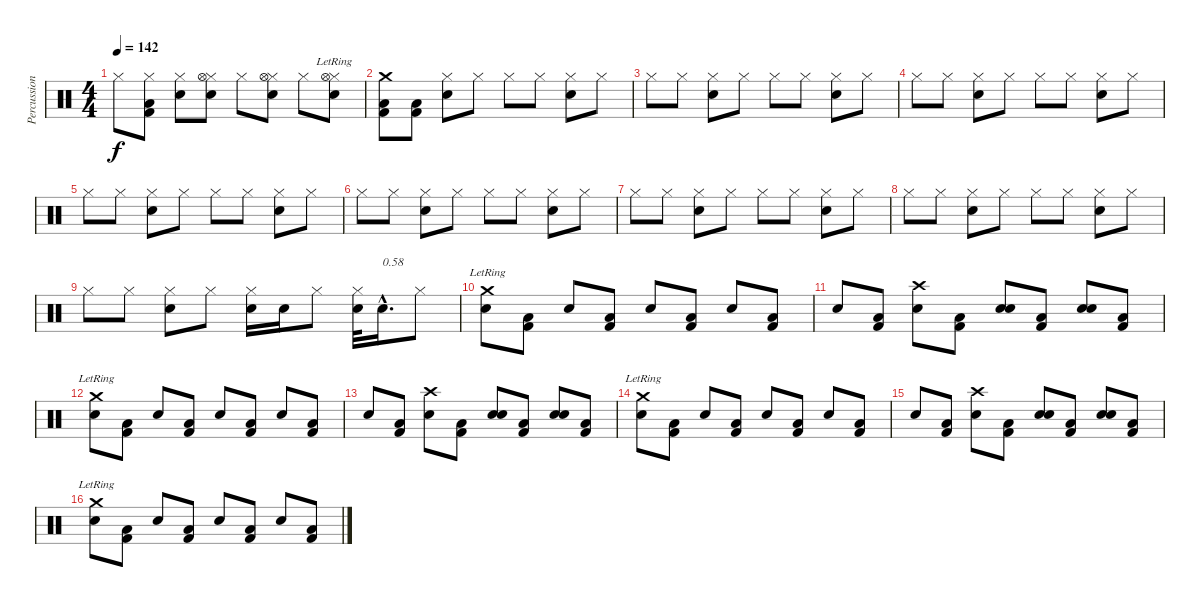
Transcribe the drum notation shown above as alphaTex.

\track ("Percussions" "Percussion") {instrument percussion}
\staff {score}
\articulation defaults
\ts (4 4)
\tempo 142
\clef neutral
\ks c "Hi-Hat (closed)".8{dy f}
("Kick (hit) 2" "Low Floor Tom (hit)" "Hi-Hat (closed)").8 ("Electric Snare (hit)" "Hi-Hat (closed)").8 ("Electric Snare (hit)" "Hi-Hat (closed)" "Hi-Hat (open)").8 "Hi-Hat (closed)".8 ("Electric Snare (hit)" "Hi-Hat (closed)" "Hi-Hat (open)").8 "Hi-Hat (closed)".8 ("Electric Snare (hit)" "Hi-Hat (closed)" "Hi-Hat (open)"{lr}).8 |
("Kick (hit) 2" "Low Floor Tom (hit)" "Crash medium (hit)").8 ("Kick (hit) 2" "Low Floor Tom (hit)").8 ("Electric Snare (hit)" "Hi-Hat (closed)").8 "Hi-Hat (closed)".8 "Hi-Hat (closed)".8 "Hi-Hat (closed)".8 ("Electric Snare (hit)" "Hi-Hat (closed)").8 "Hi-Hat (closed)".8 |
"Hi-Hat (closed)".8 "Hi-Hat (closed)".8 ("Electric Snare (hit)" "Hi-Hat (closed)").8 "Hi-Hat (closed)".8 "Hi-Hat (closed)".8 "Hi-Hat (closed)".8 ("Electric Snare (hit)" "Hi-Hat (closed)").8 "Hi-Hat (closed)".8 |
"Hi-Hat (closed)".8 "Hi-Hat (closed)".8 ("Electric Snare (hit)" "Hi-Hat (closed)").8 "Hi-Hat (closed)".8 "Hi-Hat (closed)".8 "Hi-Hat (closed)".8 ("Electric Snare (hit)" "Hi-Hat (closed)").8 "Hi-Hat (closed)".8 |
"Hi-Hat (closed)".8 "Hi-Hat (closed)".8 ("Electric Snare (hit)" "Hi-Hat (closed)").8 "Hi-Hat (closed)".8 "Hi-Hat (closed)".8 "Hi-Hat (closed)".8 ("Electric Snare (hit)" "Hi-Hat (closed)").8 "Hi-Hat (closed)".8 |
"Hi-Hat (closed)".8 "Hi-Hat (closed)".8 ("Electric Snare (hit)" "Hi-Hat (closed)").8 "Hi-Hat (closed)".8 "Hi-Hat (closed)".8 "Hi-Hat (closed)".8 ("Electric Snare (hit)" "Hi-Hat (closed)").8 "Hi-Hat (closed)".8 |
"Hi-Hat (closed)".8 "Hi-Hat (closed)".8 ("Electric Snare (hit)" "Hi-Hat (closed)").8 "Hi-Hat (closed)".8 "Hi-Hat (closed)".8 "Hi-Hat (closed)".8 ("Electric Snare (hit)" "Hi-Hat (closed)").8 "Hi-Hat (closed)".8 |
"Hi-Hat (closed)".8 "Hi-Hat (closed)".8 ("Electric Snare (hit)" "Hi-Hat (closed)").8 "Hi-Hat (closed)".8 "Hi-Hat (closed)".8 "Hi-Hat (closed)".8 ("Electric Snare (hit)" "Hi-Hat (closed)").8 "Hi-Hat (closed)".8 |
"Hi-Hat (closed)".8 "Hi-Hat (closed)".8 ("Electric Snare (hit)" "Hi-Hat (closed)").8 "Hi-Hat (closed)".8 ("Electric Snare (hit)" "Hi-Hat (closed)").16 "Electric Snare (hit)".16 "Hi-Hat (closed)".8 ("Electric Snare (hit)" "Hi-Hat (closed)").32 "Electric Snare (hit)"{hac}.16{d txt "0.58"} "Hi-Hat (closed)".8 |
("Electric Snare (hit)" "Crash medium (hit)"{lr}).8 ("Kick (hit) 2" "Low Floor Tom (hit)").8 "Electric Snare (hit)".8 ("Kick (hit) 2" "Low Floor Tom (hit)").8 "Electric Snare (hit)".8 ("Kick (hit) 2" "Low Floor Tom (hit)").8 "Electric Snare (hit)".8 ("Kick (hit) 2" "Low Floor Tom (hit)").8 |
"Electric Snare (hit)".8 ("Kick (hit) 2" "Low Floor Tom (hit)").8 ("Electric Snare (hit)" "Crash high (hit)").8 ("Kick (hit) 2" "Low Floor Tom (hit)").8 ("Electric Snare (hit)" "Snare (hit) 2").8 ("Kick (hit) 2" "Low Floor Tom (hit)").8 ("Electric Snare (hit)" "Snare (hit) 2").8 ("Kick (hit) 2" "Low Floor Tom (hit)").8 |
("Electric Snare (hit)" "Crash medium (hit)"{lr}).8 ("Kick (hit) 2" "Low Floor Tom (hit)").8 "Electric Snare (hit)".8 ("Kick (hit) 2" "Low Floor Tom (hit)").8 "Electric Snare (hit)".8 ("Kick (hit) 2" "Low Floor Tom (hit)").8 "Electric Snare (hit)".8 ("Kick (hit) 2" "Low Floor Tom (hit)").8 |
"Electric Snare (hit)".8 ("Kick (hit) 2" "Low Floor Tom (hit)").8 ("Electric Snare (hit)" "Crash high (hit)").8 ("Kick (hit) 2" "Low Floor Tom (hit)").8 ("Electric Snare (hit)" "Snare (hit) 2").8 ("Kick (hit) 2" "Low Floor Tom (hit)").8 ("Electric Snare (hit)" "Snare (hit) 2").8 ("Kick (hit) 2" "Low Floor Tom (hit)").8 |
("Electric Snare (hit)" "Crash medium (hit)"{lr}).8 ("Kick (hit) 2" "Low Floor Tom (hit)").8 "Electric Snare (hit)".8 ("Kick (hit) 2" "Low Floor Tom (hit)").8 "Electric Snare (hit)".8 ("Kick (hit) 2" "Low Floor Tom (hit)").8 "Electric Snare (hit)".8 ("Kick (hit) 2" "Low Floor Tom (hit)").8 |
"Electric Snare (hit)".8 ("Kick (hit) 2" "Low Floor Tom (hit)").8 ("Electric Snare (hit)" "Crash high (hit)").8 ("Kick (hit) 2" "Low Floor Tom (hit)").8 ("Electric Snare (hit)" "Snare (hit) 2").8 ("Kick (hit) 2" "Low Floor Tom (hit)").8 ("Electric Snare (hit)" "Snare (hit) 2").8 ("Kick (hit) 2" "Low Floor Tom (hit)").8 |
("Electric Snare (hit)" "Crash medium (hit)"{lr}).8 ("Kick (hit) 2" "Low Floor Tom (hit)").8 "Electric Snare (hit)".8 ("Kick (hit) 2" "Low Floor Tom (hit)").8 "Electric Snare (hit)".8 ("Kick (hit) 2" "Low Floor Tom (hit)").8 "Electric Snare (hit)".8 ("Kick (hit) 2" "Low Floor Tom (hit)").8
